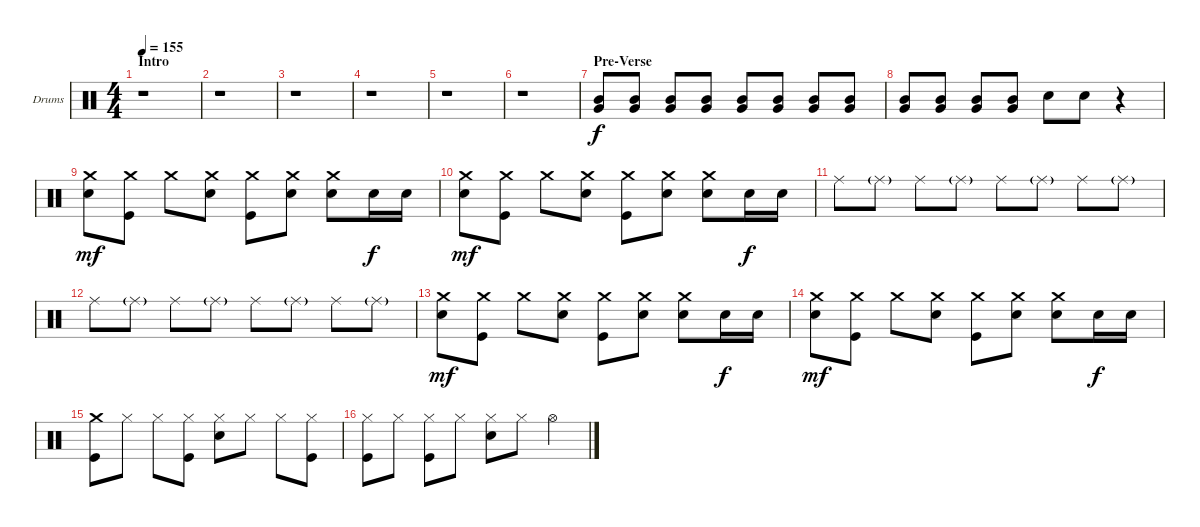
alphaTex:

\bracketExtendMode groupsimilarinstruments
\firstSystemTrackNameOrientation horizontal
\otherSystemsTrackNameOrientation horizontal
\track ("Drumkit" "Drums") {instrument percussion}
\staff {score}
\articulation defaults
\ts (4 4)
\section ("" "Intro")
\tempo 155
\clef neutral
\ks c
r.1{dy f} |
r.1 |
r.1 |
r.1 |
r.1 |
r.1 |
\section ("" "Pre-Verse")
("Mid Tom (hit)" "Very Low Tom (hit)").8 ("Mid Tom (hit)" "Very Low Tom (hit)").8 ("Mid Tom (hit)" "Very Low Tom (hit)").8 ("Mid Tom (hit)" "Very Low Tom (hit)").8 ("Mid Tom (hit)" "Very Low Tom (hit)").8 ("Mid Tom (hit)" "Very Low Tom (hit)").8 ("Mid Tom (hit)" "Very Low Tom (hit)").8 ("Mid Tom (hit)" "Very Low Tom (hit)").8 |
("Mid Tom (hit)" "Very Low Tom (hit)").8 ("Mid Tom (hit)" "Very Low Tom (hit)").8 ("Mid Tom (hit)" "Very Low Tom (hit)").8 ("Mid Tom (hit)" "Very Low Tom (hit)").8 "Snare (hit) 2".8 "Snare (hit) 2".8 r.4 |
("Crash medium (hit)" "Snare (hit) 2").8{dy mf} ("Crash medium (hit)" "Kick (hit)").8 "Crash medium (hit)".8 ("Crash medium (hit)" "Snare (hit) 2").8 ("Crash medium (hit)" "Kick (hit)").8 ("Crash medium (hit)" "Snare (hit) 2").8 ("Crash medium (hit)" "Snare (hit) 2").8 "Snare (hit) 2".16{dy f} "Snare (hit) 2".16 |
("Crash medium (hit)" "Snare (hit) 2").8{dy mf} ("Crash medium (hit)" "Kick (hit)").8 "Crash medium (hit)".8 ("Crash medium (hit)" "Snare (hit) 2").8 ("Crash medium (hit)" "Kick (hit)").8 ("Crash medium (hit)" "Snare (hit) 2").8 ("Crash medium (hit)" "Snare (hit) 2").8 "Snare (hit) 2".16{dy f} "Snare (hit) 2".16 |
"Ride (middle)".8 "Ride (middle)"{g}.8 "Ride (middle)".8 "Ride (middle)"{g}.8 "Ride (middle)".8 "Ride (middle)"{g}.8 "Ride (middle)".8 "Ride (middle)"{g}.8 |
"Ride (middle)".8 "Ride (middle)"{g}.8 "Ride (middle)".8 "Ride (middle)"{g}.8 "Ride (middle)".8 "Ride (middle)"{g}.8 "Ride (middle)".8 "Ride (middle)"{g}.8 |
("Crash medium (hit)" "Snare (hit) 2").8{dy mf} ("Crash medium (hit)" "Kick (hit)").8 "Crash medium (hit)".8 ("Crash medium (hit)" "Snare (hit) 2").8 ("Crash medium (hit)" "Kick (hit)").8 ("Crash medium (hit)" "Snare (hit) 2").8 ("Crash medium (hit)" "Snare (hit) 2").8 "Snare (hit) 2".16{dy f} "Snare (hit) 2".16 |
("Crash medium (hit)" "Snare (hit) 2").8{dy mf} ("Crash medium (hit)" "Kick (hit)").8 "Crash medium (hit)".8 ("Crash medium (hit)" "Snare (hit) 2").8 ("Crash medium (hit)" "Kick (hit)").8 ("Crash medium (hit)" "Snare (hit) 2").8 ("Crash medium (hit)" "Snare (hit) 2").8 "Snare (hit) 2".16{dy f} "Snare (hit) 2".16 |
("Crash medium (hit)" "Kick (hit)").8 "Hi-Hat (closed)".8 "Hi-Hat (closed)".8 ("Kick (hit)" "Hi-Hat (closed)").8 ("Snare (hit) 2" "Hi-Hat (closed)").8 "Hi-Hat (closed)".8 "Hi-Hat (closed)".8 ("Kick (hit)" "Hi-Hat (closed)").8 |
("Kick (hit)" "Hi-Hat (closed)").8 "Hi-Hat (closed)".8 ("Kick (hit)" "Hi-Hat (closed)").8 "Hi-Hat (closed)".8 ("Snare (hit) 2" "Hi-Hat (closed)").8 "Hi-Hat (closed)".8 "Hi-Hat (open)".4
